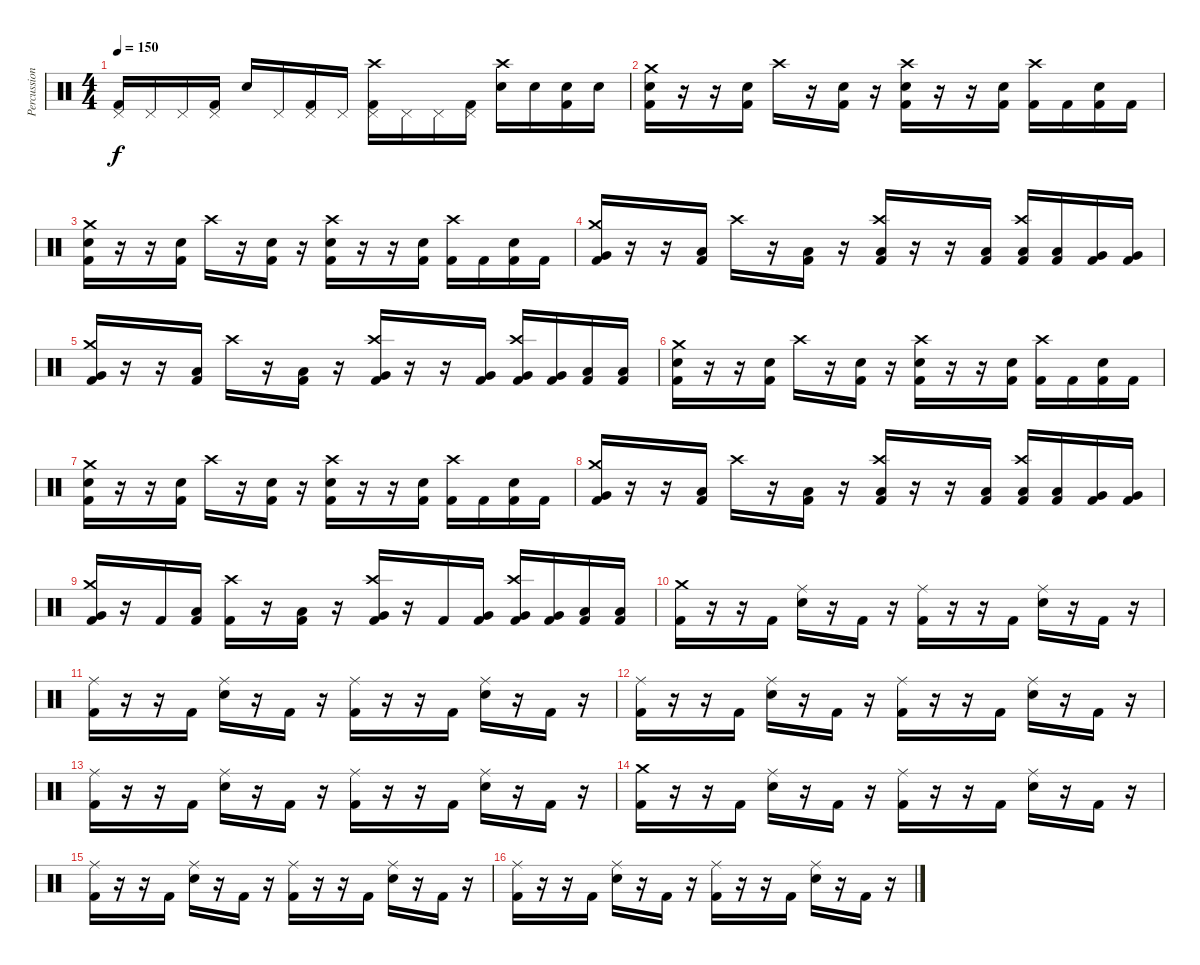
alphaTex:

\track ("Percussion" "Percussion") {instrument percussion}
\staff {score}
\articulation defaults
\ts (4 4)
\tempo 150
\clef neutral
\ks c
("Pedal Hi-Hat (hit)" "Kick (hit) 2").16{dy f} "Pedal Hi-Hat (hit)".16 "Pedal Hi-Hat (hit)".16 ("Pedal Hi-Hat (hit)" "Kick (hit) 2").16 "Snare (hit) 2".16 "Pedal Hi-Hat (hit)".16 ("Pedal Hi-Hat (hit)" "Kick (hit) 2").16 "Pedal Hi-Hat (hit)".16 ("Crash high (hit)" "Pedal Hi-Hat (hit)" "Kick (hit) 2").16 "Pedal Hi-Hat (hit)".16 "Pedal Hi-Hat (hit)".16 ("Pedal Hi-Hat (hit)" "Kick (hit) 2").16 ("Crash high (hit)" "Snare (hit) 2").16 "Snare (hit) 2".16 ("Snare (hit) 2" "Kick (hit) 2").16 "Snare (hit) 2".16 |
("Crash medium (hit)" "Snare (hit) 2" "Kick (hit) 2").16 r.16 r.16 ("Snare (hit) 2" "Kick (hit) 2").16 "Crash high (hit)".16 r.16 ("Snare (hit) 2" "Kick (hit) 2").16 r.16 ("Crash high (hit)" "Snare (hit) 2" "Kick (hit) 2").16 r.16 r.16 ("Snare (hit) 2" "Kick (hit) 2").16 ("Crash high (hit)" "Kick (hit) 2").16 "Kick (hit) 2".16 ("Snare (hit) 2" "Kick (hit) 2").16 "Kick (hit) 2".16 |
("Crash medium (hit)" "Snare (hit) 2" "Kick (hit) 2").16 r.16 r.16 ("Snare (hit) 2" "Kick (hit) 2").16 "Crash high (hit)".16 r.16 ("Snare (hit) 2" "Kick (hit) 2").16 r.16 ("Crash high (hit)" "Snare (hit) 2" "Kick (hit) 2").16 r.16 r.16 ("Snare (hit) 2" "Kick (hit) 2").16 ("Crash high (hit)" "Kick (hit) 2").16 "Kick (hit) 2".16 ("Snare (hit) 2" "Kick (hit) 2").16 "Kick (hit) 2".16 |
("Crash medium (hit)" "Very Low Tom (hit)" "Kick (hit) 2").16 r.16 r.16 ("Low Tom (hit)" "Kick (hit) 2").16 "Crash high (hit)".16 r.16 ("Low Tom (hit)" "Kick (hit) 2").16 r.16 ("Crash high (hit)" "Low Tom (hit)" "Kick (hit) 2").16 r.16 r.16 ("Low Tom (hit)" "Kick (hit) 2").16 ("Crash high (hit)" "Low Tom (hit)" "Kick (hit) 2").16 ("Low Tom (hit)" "Kick (hit) 2").16 ("Very Low Tom (hit)" "Kick (hit) 2").16 ("Very Low Tom (hit)" "Kick (hit) 2").16 |
("Crash medium (hit)" "Very Low Tom (hit)" "Kick (hit) 2").16 r.16 r.16 ("Low Tom (hit)" "Kick (hit) 2").16 "Crash high (hit)".16 r.16 ("Low Tom (hit)" "Kick (hit) 2").16 r.16 ("Crash high (hit)" "Very Low Tom (hit)" "Kick (hit) 2").16 r.16 r.16 ("Very Low Tom (hit)" "Kick (hit) 2").16 ("Crash high (hit)" "Very Low Tom (hit)" "Kick (hit) 2").16 ("Very Low Tom (hit)" "Kick (hit) 2").16 ("Low Floor Tom (hit)" "Kick (hit) 2").16 ("Low Floor Tom (hit)" "Kick (hit) 2").16 |
("Crash medium (hit)" "Snare (hit) 2" "Kick (hit) 2").16 r.16 r.16 ("Snare (hit) 2" "Kick (hit) 2").16 "Crash high (hit)".16 r.16 ("Snare (hit) 2" "Kick (hit) 2").16 r.16 ("Crash high (hit)" "Snare (hit) 2" "Kick (hit) 2").16 r.16 r.16 ("Snare (hit) 2" "Kick (hit) 2").16 ("Crash high (hit)" "Kick (hit) 2").16 "Kick (hit) 2".16 ("Snare (hit) 2" "Kick (hit) 2").16 "Kick (hit) 2".16 |
("Crash medium (hit)" "Snare (hit) 2" "Kick (hit) 2").16 r.16 r.16 ("Snare (hit) 2" "Kick (hit) 2").16 "Crash high (hit)".16 r.16 ("Snare (hit) 2" "Kick (hit) 2").16 r.16 ("Crash high (hit)" "Snare (hit) 2" "Kick (hit) 2").16 r.16 r.16 ("Snare (hit) 2" "Kick (hit) 2").16 ("Crash high (hit)" "Kick (hit) 2").16 "Kick (hit) 2".16 ("Snare (hit) 2" "Kick (hit) 2").16 "Kick (hit) 2".16 |
("Crash medium (hit)" "Very Low Tom (hit)" "Kick (hit) 2").16 r.16 r.16 ("Low Tom (hit)" "Kick (hit) 2").16 "Crash high (hit)".16 r.16 ("Low Tom (hit)" "Kick (hit) 2").16 r.16 ("Crash high (hit)" "Low Tom (hit)" "Kick (hit) 2").16 r.16 r.16 ("Low Tom (hit)" "Kick (hit) 2").16 ("Crash high (hit)" "Low Tom (hit)" "Kick (hit) 2").16 ("Low Tom (hit)" "Kick (hit) 2").16 ("Very Low Tom (hit)" "Kick (hit) 2").16 ("Very Low Tom (hit)" "Kick (hit) 2").16 |
("Crash medium (hit)" "Very Low Tom (hit)" "Kick (hit) 2").16 r.16 "Kick (hit) 2".16 ("Low Tom (hit)" "Kick (hit) 2").16 ("Crash high (hit)" "Kick (hit) 2").16 r.16 ("Low Tom (hit)" "Kick (hit) 2").16 r.16 ("Crash high (hit)" "Very Low Tom (hit)" "Kick (hit) 2").16 r.16 "Kick (hit) 2".16 ("Very Low Tom (hit)" "Kick (hit) 2").16 ("Crash high (hit)" "Very Low Tom (hit)" "Kick (hit) 2").16 ("Very Low Tom (hit)" "Kick (hit) 2").16 ("Low Floor Tom (hit)" "Kick (hit) 2").16 ("Low Floor Tom (hit)" "Kick (hit) 2").16 |
("Crash medium (hit)" "Kick (hit) 2").16 r.16 r.16 "Kick (hit) 2".16 ("Ride (middle)" "Snare (hit) 2").16 r.16 "Kick (hit) 2".16 r.16 ("Ride (middle)" "Kick (hit) 2").16 r.16 r.16 "Kick (hit) 2".16 ("Ride (middle)" "Snare (hit) 2").16 r.16 "Kick (hit) 2".16 r.16 |
("Ride (middle)" "Kick (hit) 2").16 r.16 r.16 "Kick (hit) 2".16 ("Ride (middle)" "Snare (hit) 2").16 r.16 "Kick (hit) 2".16 r.16 ("Ride (middle)" "Kick (hit) 2").16 r.16 r.16 "Kick (hit) 2".16 ("Ride (middle)" "Snare (hit) 2").16 r.16 "Kick (hit) 2".16 r.16 |
("Ride (middle)" "Kick (hit) 2").16 r.16 r.16 "Kick (hit) 2".16 ("Ride (middle)" "Snare (hit) 2").16 r.16 "Kick (hit) 2".16 r.16 ("Ride (middle)" "Kick (hit) 2").16 r.16 r.16 "Kick (hit) 2".16 ("Ride (middle)" "Snare (hit) 2").16 r.16 "Kick (hit) 2".16 r.16 |
("Ride (middle)" "Kick (hit) 2").16 r.16 r.16 "Kick (hit) 2".16 ("Ride (middle)" "Snare (hit) 2").16 r.16 "Kick (hit) 2".16 r.16 ("Ride (middle)" "Kick (hit) 2").16 r.16 r.16 "Kick (hit) 2".16 ("Ride (middle)" "Snare (hit) 2").16 r.16 "Kick (hit) 2".16 r.16 |
("Crash medium (hit)" "Kick (hit) 2").16 r.16 r.16 "Kick (hit) 2".16 ("Ride (middle)" "Snare (hit) 2").16 r.16 "Kick (hit) 2".16 r.16 ("Ride (middle)" "Kick (hit) 2").16 r.16 r.16 "Kick (hit) 2".16 ("Ride (middle)" "Snare (hit) 2").16 r.16 "Kick (hit) 2".16 r.16 |
("Ride (middle)" "Kick (hit) 2").16 r.16 r.16 "Kick (hit) 2".16 ("Ride (middle)" "Snare (hit) 2").16 r.16 "Kick (hit) 2".16 r.16 ("Ride (middle)" "Kick (hit) 2").16 r.16 r.16 "Kick (hit) 2".16 ("Ride (middle)" "Snare (hit) 2").16 r.16 "Kick (hit) 2".16 r.16 |
("Ride (middle)" "Kick (hit) 2").16 r.16 r.16 "Kick (hit) 2".16 ("Ride (middle)" "Snare (hit) 2").16 r.16 "Kick (hit) 2".16 r.16 ("Ride (middle)" "Kick (hit) 2").16 r.16 r.16 "Kick (hit) 2".16 ("Ride (middle)" "Snare (hit) 2").16 r.16 "Kick (hit) 2".16 r.16
